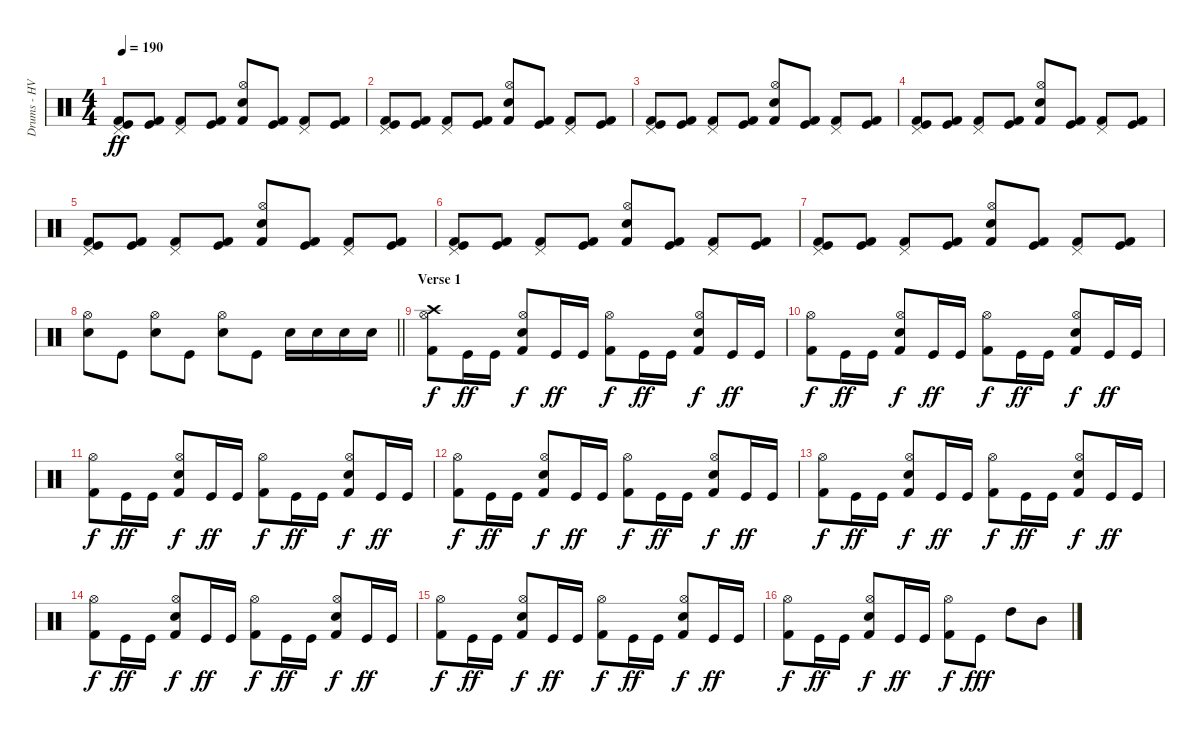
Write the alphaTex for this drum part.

\track ("Drums - HV NikiTon" "Drums - HV") {instrument percussion}
\staff {score}
\articulation defaults
\ts (4 4)
\tempo 190
\clef neutral
\ks c
("Pedal Hi-Hat (hit)" "Kick (hit)" "Kick (hit) 2").8{dy ff} ("Kick (hit)" "Kick (hit) 2").8 ("Pedal Hi-Hat (hit)" "Kick (hit) 2").8 ("Kick (hit)" "Kick (hit) 2").8 ("Hi-Hat (open)" "Electric Snare (hit)" "Kick (hit) 2").8 ("Kick (hit)" "Kick (hit) 2").8 ("Pedal Hi-Hat (hit)" "Kick (hit) 2").8 ("Kick (hit)" "Kick (hit) 2").8 |
("Pedal Hi-Hat (hit)" "Kick (hit)" "Kick (hit) 2").8 ("Kick (hit)" "Kick (hit) 2").8 ("Pedal Hi-Hat (hit)" "Kick (hit) 2").8 ("Kick (hit)" "Kick (hit) 2").8 ("Hi-Hat (open)" "Electric Snare (hit)" "Kick (hit) 2").8 ("Kick (hit)" "Kick (hit) 2").8 ("Pedal Hi-Hat (hit)" "Kick (hit) 2").8 ("Kick (hit)" "Kick (hit) 2").8 |
("Pedal Hi-Hat (hit)" "Kick (hit)" "Kick (hit) 2").8 ("Kick (hit)" "Kick (hit) 2").8 ("Pedal Hi-Hat (hit)" "Kick (hit) 2").8 ("Kick (hit)" "Kick (hit) 2").8 ("Hi-Hat (open)" "Electric Snare (hit)" "Kick (hit) 2").8 ("Kick (hit)" "Kick (hit) 2").8 ("Pedal Hi-Hat (hit)" "Kick (hit) 2").8 ("Kick (hit)" "Kick (hit) 2").8 |
("Pedal Hi-Hat (hit)" "Kick (hit)" "Kick (hit) 2").8 ("Kick (hit)" "Kick (hit) 2").8 ("Pedal Hi-Hat (hit)" "Kick (hit) 2").8 ("Kick (hit)" "Kick (hit) 2").8 ("Hi-Hat (open)" "Electric Snare (hit)" "Kick (hit) 2").8 ("Kick (hit)" "Kick (hit) 2").8 ("Pedal Hi-Hat (hit)" "Kick (hit) 2").8 ("Kick (hit)" "Kick (hit) 2").8 |
("Pedal Hi-Hat (hit)" "Kick (hit)" "Kick (hit) 2").8 ("Kick (hit)" "Kick (hit) 2").8 ("Pedal Hi-Hat (hit)" "Kick (hit) 2").8 ("Kick (hit)" "Kick (hit) 2").8 ("Hi-Hat (open)" "Electric Snare (hit)" "Kick (hit) 2").8 ("Kick (hit)" "Kick (hit) 2").8 ("Pedal Hi-Hat (hit)" "Kick (hit) 2").8 ("Kick (hit)" "Kick (hit) 2").8 |
("Pedal Hi-Hat (hit)" "Kick (hit)" "Kick (hit) 2").8 ("Kick (hit)" "Kick (hit) 2").8 ("Pedal Hi-Hat (hit)" "Kick (hit) 2").8 ("Kick (hit)" "Kick (hit) 2").8 ("Hi-Hat (open)" "Electric Snare (hit)" "Kick (hit) 2").8 ("Kick (hit)" "Kick (hit) 2").8 ("Pedal Hi-Hat (hit)" "Kick (hit) 2").8 ("Kick (hit)" "Kick (hit) 2").8 |
("Pedal Hi-Hat (hit)" "Kick (hit)" "Kick (hit) 2").8 ("Kick (hit)" "Kick (hit) 2").8 ("Pedal Hi-Hat (hit)" "Kick (hit) 2").8 ("Kick (hit)" "Kick (hit) 2").8 ("Hi-Hat (open)" "Electric Snare (hit)" "Kick (hit) 2").8 ("Kick (hit)" "Kick (hit) 2").8 ("Pedal Hi-Hat (hit)" "Kick (hit) 2").8 ("Kick (hit)" "Kick (hit) 2").8 |
\barLineRight lightlight
("Electric Snare (hit)" "Hi-Hat (open)").8 "Kick (hit)".8 ("Electric Snare (hit)" "Hi-Hat (open)").8 "Kick (hit)".8 ("Electric Snare (hit)" "Hi-Hat (open)").8 "Kick (hit)".8 "Electric Snare (hit)".16 "Electric Snare (hit)".16 "Electric Snare (hit)".16 "Electric Snare (hit)".16 |
\section ("" "Verse 1")
("Kick (hit) 2" "Hi-Hat (open)" "Crash high (hit)").8{dy f} "Kick (hit)".16{dy ff} "Kick (hit)".16 ("Electric Snare (hit)" "Kick (hit) 2" "Hi-Hat (open)").8{dy f} "Kick (hit)".16{dy ff} "Kick (hit)".16 ("Kick (hit) 2" "Hi-Hat (open)").8{dy f} "Kick (hit)".16{dy ff} "Kick (hit)".16 ("Electric Snare (hit)" "Kick (hit) 2" "Hi-Hat (open)").8{dy f} "Kick (hit)".16{dy ff} "Kick (hit)".16 |
("Kick (hit) 2" "Hi-Hat (open)").8{dy f} "Kick (hit)".16{dy ff} "Kick (hit)".16 ("Electric Snare (hit)" "Kick (hit) 2" "Hi-Hat (open)").8{dy f} "Kick (hit)".16{dy ff} "Kick (hit)".16 ("Kick (hit) 2" "Hi-Hat (open)").8{dy f} "Kick (hit)".16{dy ff} "Kick (hit)".16 ("Electric Snare (hit)" "Kick (hit) 2" "Hi-Hat (open)").8{dy f} "Kick (hit)".16{dy ff} "Kick (hit)".16 |
("Kick (hit) 2" "Hi-Hat (open)").8{dy f} "Kick (hit)".16{dy ff} "Kick (hit)".16 ("Electric Snare (hit)" "Kick (hit) 2" "Hi-Hat (open)").8{dy f} "Kick (hit)".16{dy ff} "Kick (hit)".16 ("Kick (hit) 2" "Hi-Hat (open)").8{dy f} "Kick (hit)".16{dy ff} "Kick (hit)".16 ("Electric Snare (hit)" "Kick (hit) 2" "Hi-Hat (open)").8{dy f} "Kick (hit)".16{dy ff} "Kick (hit)".16 |
("Kick (hit) 2" "Hi-Hat (open)").8{dy f} "Kick (hit)".16{dy ff} "Kick (hit)".16 ("Electric Snare (hit)" "Kick (hit) 2" "Hi-Hat (open)").8{dy f} "Kick (hit)".16{dy ff} "Kick (hit)".16 ("Kick (hit) 2" "Hi-Hat (open)").8{dy f} "Kick (hit)".16{dy ff} "Kick (hit)".16 ("Electric Snare (hit)" "Kick (hit) 2" "Hi-Hat (open)").8{dy f} "Kick (hit)".16{dy ff} "Kick (hit)".16 |
("Kick (hit) 2" "Hi-Hat (open)").8{dy f} "Kick (hit)".16{dy ff} "Kick (hit)".16 ("Electric Snare (hit)" "Kick (hit) 2" "Hi-Hat (open)").8{dy f} "Kick (hit)".16{dy ff} "Kick (hit)".16 ("Kick (hit) 2" "Hi-Hat (open)").8{dy f} "Kick (hit)".16{dy ff} "Kick (hit)".16 ("Electric Snare (hit)" "Kick (hit) 2" "Hi-Hat (open)").8{dy f} "Kick (hit)".16{dy ff} "Kick (hit)".16 |
("Kick (hit) 2" "Hi-Hat (open)").8{dy f} "Kick (hit)".16{dy ff} "Kick (hit)".16 ("Electric Snare (hit)" "Kick (hit) 2" "Hi-Hat (open)").8{dy f} "Kick (hit)".16{dy ff} "Kick (hit)".16 ("Kick (hit) 2" "Hi-Hat (open)").8{dy f} "Kick (hit)".16{dy ff} "Kick (hit)".16 ("Electric Snare (hit)" "Kick (hit) 2" "Hi-Hat (open)").8{dy f} "Kick (hit)".16{dy ff} "Kick (hit)".16 |
("Kick (hit) 2" "Hi-Hat (open)").8{dy f} "Kick (hit)".16{dy ff} "Kick (hit)".16 ("Electric Snare (hit)" "Kick (hit) 2" "Hi-Hat (open)").8{dy f} "Kick (hit)".16{dy ff} "Kick (hit)".16 ("Kick (hit) 2" "Hi-Hat (open)").8{dy f} "Kick (hit)".16{dy ff} "Kick (hit)".16 ("Electric Snare (hit)" "Kick (hit) 2" "Hi-Hat (open)").8{dy f} "Kick (hit)".16{dy ff} "Kick (hit)".16 |
("Kick (hit) 2" "Hi-Hat (open)").8{dy f} "Kick (hit)".16{dy ff} "Kick (hit)".16 ("Electric Snare (hit)" "Kick (hit) 2" "Hi-Hat (open)").8{dy f} "Kick (hit)".16{dy ff} "Kick (hit)".16 ("Kick (hit) 2" "Hi-Hat (open)").8{dy f} "Kick (hit)".8{dy fff} "High Tom (hit)".8 "Mid Tom (hit)".8
